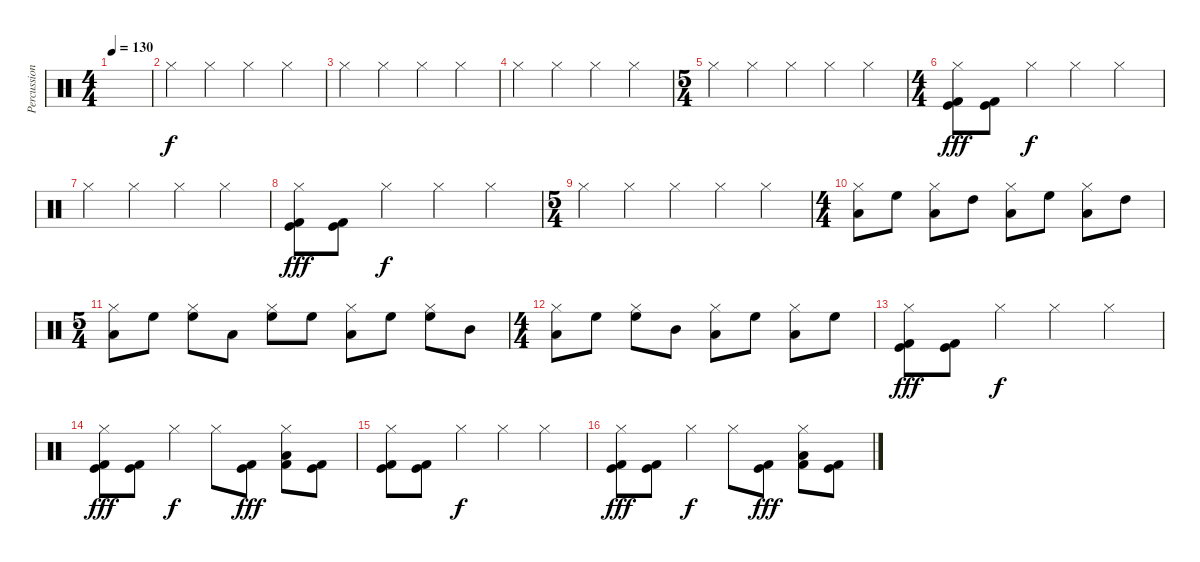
\track ("Percussion" "Percussion") {instrument percussion}
\staff {score}
\articulation defaults
\ts (4 4)
\tempo 130
\clef neutral
\ks c
|
"Hi-Hat (closed)".4 "Hi-Hat (closed)".4 "Hi-Hat (closed)".4 "Hi-Hat (closed)".4 |
"Hi-Hat (closed)".4 "Hi-Hat (closed)".4 "Hi-Hat (closed)".4 "Hi-Hat (closed)".4 |
"Hi-Hat (closed)".4 "Hi-Hat (closed)".4 "Hi-Hat (closed)".4 "Hi-Hat (closed)".4 |
\ts (5 4)
"Hi-Hat (closed)".4 "Hi-Hat (closed)".4 "Hi-Hat (closed)".4 "Hi-Hat (closed)".4 "Hi-Hat (closed)".4 |
\ts (4 4)
("Hi-Hat (closed)" "Kick (hit) 2" "Kick (hit)").8{dy fff} ("Kick (hit) 2" "Kick (hit)").8 "Hi-Hat (closed)".4{dy f} "Hi-Hat (closed)".4 "Hi-Hat (closed)".4 |
"Hi-Hat (closed)".4 "Hi-Hat (closed)".4 "Hi-Hat (closed)".4 "Hi-Hat (closed)".4 |
("Hi-Hat (closed)" "Kick (hit) 2" "Kick (hit)").8{dy fff} ("Kick (hit) 2" "Kick (hit)").8 "Hi-Hat (closed)".4{dy f} "Hi-Hat (closed)".4 "Hi-Hat (closed)".4 |
\ts (5 4)
"Hi-Hat (closed)".4 "Hi-Hat (closed)".4 "Hi-Hat (closed)".4 "Hi-Hat (closed)".4 "Hi-Hat (closed)".4 |
\ts (4 4)
("Hi-Hat (closed)" "Low Tom (hit)").8 "High Floor Tom (hit)".8 ("Hi-Hat (closed)" "Low Tom (hit)").8 "High Tom (hit)".8 ("Hi-Hat (closed)" "Low Tom (hit)").8 "High Floor Tom (hit)".8 ("Hi-Hat (closed)" "Low Tom (hit)").8 "High Tom (hit)".8 |
\ts (5 4)
("Hi-Hat (closed)" "Low Tom (hit)").8 "High Floor Tom (hit)".8 ("Hi-Hat (closed)" "High Floor Tom (hit)").8 "Low Tom (hit)".8 ("Hi-Hat (closed)" "High Floor Tom (hit)").8 "High Floor Tom (hit)".8 ("Hi-Hat (closed)" "Low Tom (hit)").8 "High Floor Tom (hit)".8 ("Hi-Hat (closed)" "High Floor Tom (hit)").8 "Mid Tom (hit)".8 |
\ts (4 4)
("Hi-Hat (closed)" "Low Tom (hit)").8 "High Floor Tom (hit)".8 ("Hi-Hat (closed)" "High Floor Tom (hit)").8 "Mid Tom (hit)".8 ("Hi-Hat (closed)" "Low Tom (hit)").8 "High Floor Tom (hit)".8 ("Hi-Hat (closed)" "Low Tom (hit)").8 "High Floor Tom (hit)".8 |
("Hi-Hat (closed)" "Kick (hit)" "Kick (hit) 2").8{dy fff} ("Kick (hit) 2" "Kick (hit)").8 "Hi-Hat (closed)".4{dy f} "Hi-Hat (closed)".4 "Hi-Hat (closed)".4 |
("Hi-Hat (closed)" "Kick (hit)" "Kick (hit) 2").8{dy fff} ("Kick (hit)" "Kick (hit) 2").8 "Hi-Hat (closed)".4{dy f} "Hi-Hat (closed)".8 ("Kick (hit)" "Kick (hit) 2").8{dy fff} ("Hi-Hat (closed)" "Low Tom (hit)" "Kick (hit) 2").8 ("Kick (hit)" "Kick (hit) 2").8 |
("Hi-Hat (closed)" "Kick (hit)" "Kick (hit) 2").8 ("Kick (hit) 2" "Kick (hit)").8 "Hi-Hat (closed)".4{dy f} "Hi-Hat (closed)".4 "Hi-Hat (closed)".4 |
("Hi-Hat (closed)" "Kick (hit)" "Kick (hit) 2").8{dy fff} ("Kick (hit)" "Kick (hit) 2").8 "Hi-Hat (closed)".4{dy f} "Hi-Hat (closed)".8 ("Kick (hit)" "Kick (hit) 2").8{dy fff} ("Hi-Hat (closed)" "Low Tom (hit)" "Kick (hit) 2").8 ("Kick (hit)" "Kick (hit) 2").8
